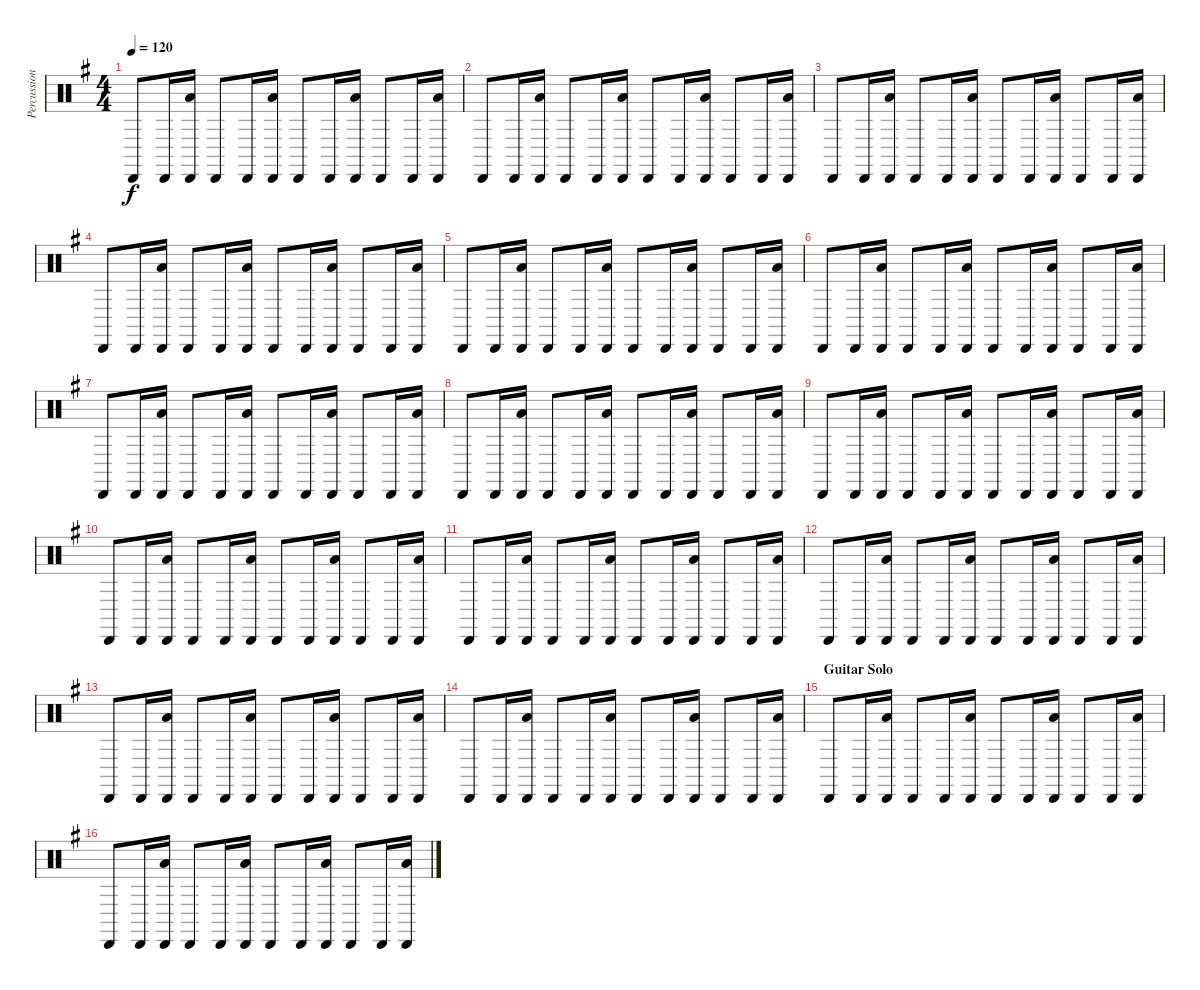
\track ("Percussion" "Percussion") {instrument percussion}
\staff {score}
\articulation defaults
\ts (4 4)
\tempo 120
\clef neutral
\ks g "Cabasa (hit)".8{dy f} "Cabasa (hit)".16
("Cabasa (hit)" "Low Floor Tom (hit)").16 "Cabasa (hit)".8 "Cabasa (hit)".16 ("Cabasa (hit)" "Low Floor Tom (hit)").16 "Cabasa (hit)".8 "Cabasa (hit)".16 ("Cabasa (hit)" "Low Floor Tom (hit)").16 "Cabasa (hit)".8 "Cabasa (hit)".16 ("Cabasa (hit)" "Low Floor Tom (hit)").16 |
"Cabasa (hit)".8 "Cabasa (hit)".16 ("Cabasa (hit)" "Low Floor Tom (hit)").16 "Cabasa (hit)".8 "Cabasa (hit)".16 ("Cabasa (hit)" "Low Floor Tom (hit)").16 "Cabasa (hit)".8 "Cabasa (hit)".16 ("Cabasa (hit)" "Low Floor Tom (hit)").16 "Cabasa (hit)".8 "Cabasa (hit)".16 ("Cabasa (hit)" "Low Floor Tom (hit)").16 |
"Cabasa (hit)".8 "Cabasa (hit)".16 ("Cabasa (hit)" "Low Floor Tom (hit)").16 "Cabasa (hit)".8 "Cabasa (hit)".16 ("Cabasa (hit)" "Low Floor Tom (hit)").16 "Cabasa (hit)".8 "Cabasa (hit)".16 ("Cabasa (hit)" "Low Floor Tom (hit)").16 "Cabasa (hit)".8 "Cabasa (hit)".16 ("Cabasa (hit)" "Low Floor Tom (hit)").16 |
"Cabasa (hit)".8 "Cabasa (hit)".16 ("Cabasa (hit)" "Low Floor Tom (hit)").16 "Cabasa (hit)".8 "Cabasa (hit)".16 ("Cabasa (hit)" "Low Floor Tom (hit)").16 "Cabasa (hit)".8 "Cabasa (hit)".16 ("Cabasa (hit)" "Low Floor Tom (hit)").16 "Cabasa (hit)".8 "Cabasa (hit)".16 ("Cabasa (hit)" "Low Floor Tom (hit)").16 |
"Cabasa (hit)".8 "Cabasa (hit)".16 ("Cabasa (hit)" "Low Floor Tom (hit)").16 "Cabasa (hit)".8 "Cabasa (hit)".16 ("Cabasa (hit)" "Low Floor Tom (hit)").16 "Cabasa (hit)".8 "Cabasa (hit)".16 ("Cabasa (hit)" "Low Floor Tom (hit)").16 "Cabasa (hit)".8 "Cabasa (hit)".16 ("Cabasa (hit)" "Low Floor Tom (hit)").16 |
"Cabasa (hit)".8 "Cabasa (hit)".16 ("Cabasa (hit)" "Low Floor Tom (hit)").16 "Cabasa (hit)".8 "Cabasa (hit)".16 ("Cabasa (hit)" "Low Floor Tom (hit)").16 "Cabasa (hit)".8 "Cabasa (hit)".16 ("Cabasa (hit)" "Low Floor Tom (hit)").16 "Cabasa (hit)".8 "Cabasa (hit)".16 ("Cabasa (hit)" "Low Floor Tom (hit)").16 |
"Cabasa (hit)".8 "Cabasa (hit)".16 ("Cabasa (hit)" "Low Floor Tom (hit)").16 "Cabasa (hit)".8 "Cabasa (hit)".16 ("Cabasa (hit)" "Low Floor Tom (hit)").16 "Cabasa (hit)".8 "Cabasa (hit)".16 ("Cabasa (hit)" "Low Floor Tom (hit)").16 "Cabasa (hit)".8 "Cabasa (hit)".16 ("Cabasa (hit)" "Low Floor Tom (hit)").16 |
"Cabasa (hit)".8 "Cabasa (hit)".16 ("Cabasa (hit)" "Low Floor Tom (hit)").16 "Cabasa (hit)".8 "Cabasa (hit)".16 ("Cabasa (hit)" "Low Floor Tom (hit)").16 "Cabasa (hit)".8 "Cabasa (hit)".16 ("Cabasa (hit)" "Low Floor Tom (hit)").16 "Cabasa (hit)".8 "Cabasa (hit)".16 ("Cabasa (hit)" "Low Floor Tom (hit)").16 |
"Cabasa (hit)".8 "Cabasa (hit)".16 ("Cabasa (hit)" "Low Floor Tom (hit)").16 "Cabasa (hit)".8 "Cabasa (hit)".16 ("Cabasa (hit)" "Low Floor Tom (hit)").16 "Cabasa (hit)".8 "Cabasa (hit)".16 ("Cabasa (hit)" "Low Floor Tom (hit)").16 "Cabasa (hit)".8 "Cabasa (hit)".16 ("Cabasa (hit)" "Low Floor Tom (hit)").16 |
"Cabasa (hit)".8 "Cabasa (hit)".16 ("Cabasa (hit)" "Low Floor Tom (hit)").16 "Cabasa (hit)".8 "Cabasa (hit)".16 ("Cabasa (hit)" "Low Floor Tom (hit)").16 "Cabasa (hit)".8 "Cabasa (hit)".16 ("Cabasa (hit)" "Low Floor Tom (hit)").16 "Cabasa (hit)".8 "Cabasa (hit)".16 ("Cabasa (hit)" "Low Floor Tom (hit)").16 |
"Cabasa (hit)".8 "Cabasa (hit)".16 ("Cabasa (hit)" "Low Floor Tom (hit)").16 "Cabasa (hit)".8 "Cabasa (hit)".16 ("Cabasa (hit)" "Low Floor Tom (hit)").16 "Cabasa (hit)".8 "Cabasa (hit)".16 ("Cabasa (hit)" "Low Floor Tom (hit)").16 "Cabasa (hit)".8 "Cabasa (hit)".16 ("Cabasa (hit)" "Low Floor Tom (hit)").16 |
"Cabasa (hit)".8 "Cabasa (hit)".16 ("Cabasa (hit)" "Low Floor Tom (hit)").16 "Cabasa (hit)".8 "Cabasa (hit)".16 ("Cabasa (hit)" "Low Floor Tom (hit)").16 "Cabasa (hit)".8 "Cabasa (hit)".16 ("Cabasa (hit)" "Low Floor Tom (hit)").16 "Cabasa (hit)".8 "Cabasa (hit)".16 ("Cabasa (hit)" "Low Floor Tom (hit)").16 |
"Cabasa (hit)".8 "Cabasa (hit)".16 ("Cabasa (hit)" "Low Floor Tom (hit)").16 "Cabasa (hit)".8 "Cabasa (hit)".16 ("Cabasa (hit)" "Low Floor Tom (hit)").16 "Cabasa (hit)".8 "Cabasa (hit)".16 ("Cabasa (hit)" "Low Floor Tom (hit)").16 "Cabasa (hit)".8 "Cabasa (hit)".16 ("Cabasa (hit)" "Low Floor Tom (hit)").16 |
"Cabasa (hit)".8 "Cabasa (hit)".16 ("Cabasa (hit)" "Low Floor Tom (hit)").16 "Cabasa (hit)".8 "Cabasa (hit)".16 ("Cabasa (hit)" "Low Floor Tom (hit)").16 "Cabasa (hit)".8 "Cabasa (hit)".16 ("Cabasa (hit)" "Low Floor Tom (hit)").16 "Cabasa (hit)".8 "Cabasa (hit)".16 ("Cabasa (hit)" "Low Floor Tom (hit)").16 |
\section ("" "Guitar Solo")
"Cabasa (hit)".8 "Cabasa (hit)".16 ("Cabasa (hit)" "Low Floor Tom (hit)").16 "Cabasa (hit)".8 "Cabasa (hit)".16 ("Cabasa (hit)" "Low Floor Tom (hit)").16 "Cabasa (hit)".8 "Cabasa (hit)".16 ("Cabasa (hit)" "Low Floor Tom (hit)").16 "Cabasa (hit)".8 "Cabasa (hit)".16 ("Cabasa (hit)" "Low Floor Tom (hit)").16 |
"Cabasa (hit)".8 "Cabasa (hit)".16 ("Cabasa (hit)" "Low Floor Tom (hit)").16 "Cabasa (hit)".8 "Cabasa (hit)".16 ("Cabasa (hit)" "Low Floor Tom (hit)").16 "Cabasa (hit)".8 "Cabasa (hit)".16 ("Cabasa (hit)" "Low Floor Tom (hit)").16 "Cabasa (hit)".8 "Cabasa (hit)".16 ("Cabasa (hit)" "Low Floor Tom (hit)").16
